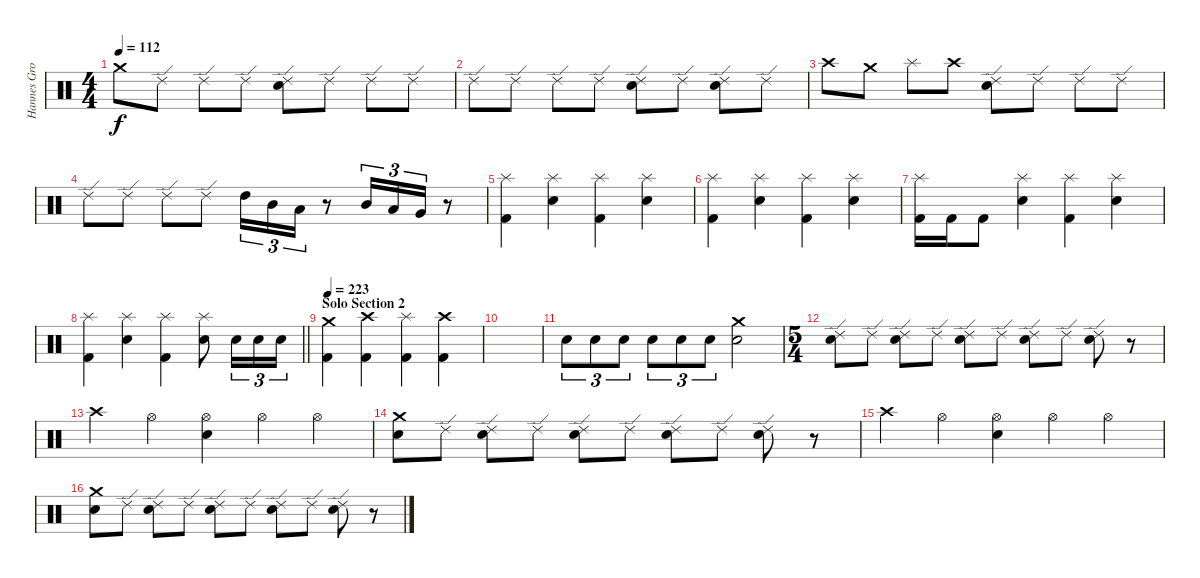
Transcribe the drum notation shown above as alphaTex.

\track ("Hannes Grossmann" "Hannes Gro") {instrument percussion}
\staff {score}
\articulation defaults
\ts (4 4)
\tempo 112
\clef neutral
\ks c "Crash medium (hit)".8{dy f} "Ride (edge) 2".8 "Ride (edge) 2".8 "Ride (edge) 2".8
("Ride (edge) 2" "Electric Snare (hit)").8 "Ride (edge) 2".8 "Ride (edge) 2".8 "Ride (edge) 2".8 |
"Ride (edge) 2".8 "Ride (edge) 2".8 "Ride (edge) 2".8 "Ride (edge) 2".8 ("Ride (edge) 2" "Electric Snare (hit)").8 "Ride (edge) 2".8 ("Ride (edge) 2" "Electric Snare (hit)").8 "Ride (edge) 2".8 |
"Crash high (hit)".8 "Crash medium (hit)".8 "Splash (hit)".8 "Crash high (hit)".8 ("Ride (edge) 2" "Electric Snare (hit)").8 "Ride (edge) 2".8 "Ride (edge) 2".8 "Ride (edge) 2".8 |
"Ride (edge) 2".8 "Ride (edge) 2".8 "Ride (edge) 2".8 "Ride (edge) 2".8 "High Tom (hit)".16{tu (3 2)} "Mid Tom (hit)".16{tu (3 2)} "Low Tom (hit)".16{tu (3 2)} r.8 "Mid Tom (hit)".16{tu (3 2)} "Low Tom (hit)".16{tu (3 2)} "Very Low Tom (hit)".16{tu (3 2)} r.8 |
("Splash (hit)" "Kick (hit) 2").4 ("Splash (hit)" "Electric Snare (hit)").4 ("Splash (hit)" "Kick (hit) 2").4 ("Splash (hit)" "Electric Snare (hit)").4 |
("Splash (hit)" "Kick (hit) 2").4 ("Splash (hit)" "Electric Snare (hit)").4 ("Splash (hit)" "Kick (hit) 2").4 ("Splash (hit)" "Electric Snare (hit)").4 |
("Splash (hit)" "Kick (hit) 2").16 "Kick (hit) 2".16 "Kick (hit) 2".8 ("Splash (hit)" "Electric Snare (hit)").4 ("Splash (hit)" "Kick (hit) 2").4 ("Splash (hit)" "Electric Snare (hit)").4 |
\barLineRight lightlight
("Splash (hit)" "Kick (hit) 2").4 ("Splash (hit)" "Electric Snare (hit)").4 ("Splash (hit)" "Kick (hit) 2").4 ("Splash (hit)" "Electric Snare (hit)").8 "Electric Snare (hit)".16{tu (3 2)} "Electric Snare (hit)".16{tu (3 2)} "Electric Snare (hit)".16{tu (3 2)} |
\section ("" "Solo Section 2")
\tempo 223
("Crash medium (hit)" "Kick (hit) 2").4 ("Crash high (hit)" "Kick (hit) 2").4 ("Splash (hit)" "Kick (hit) 2").4 ("Crash high (hit)" "Kick (hit) 2").4 |
|
"Electric Snare (hit)".8{tu (3 2)} "Electric Snare (hit)".8{tu (3 2)} "Electric Snare (hit)".8{tu (3 2)} "Electric Snare (hit)".8{tu (3 2)} "Electric Snare (hit)".8{tu (3 2)} "Electric Snare (hit)".8{tu (3 2)} ("Crash medium (hit)" "Electric Snare (hit)").2 |
\ts (5 4)
("Ride (edge) 2" "Electric Snare (hit)").8 "Ride (edge) 2".8 ("Ride (edge) 2" "Electric Snare (hit)").8 "Ride (edge) 2".8 ("Ride (edge) 2" "Electric Snare (hit)").8 "Ride (edge) 2".8 ("Ride (edge) 2" "Electric Snare (hit)").8 "Ride (edge) 2".8 ("Ride (edge) 2" "Electric Snare (hit)").8 r.8 |
"Crash high (hit)".4 "Hi-Hat (open)".4 ("Hi-Hat (open)" "Electric Snare (hit)").4 "Hi-Hat (open)".4 "Hi-Hat (open)".4 |
("Crash medium (hit)" "Electric Snare (hit)").8 "Ride (edge) 2".8 ("Ride (edge) 2" "Electric Snare (hit)").8 "Ride (edge) 2".8 ("Ride (edge) 2" "Electric Snare (hit)").8 "Ride (edge) 2".8 ("Ride (edge) 2" "Electric Snare (hit)").8 "Ride (edge) 2".8 ("Ride (edge) 2" "Electric Snare (hit)").8 r.8 |
"Crash high (hit)".4 "Hi-Hat (open)".4 ("Hi-Hat (open)" "Electric Snare (hit)").4 "Hi-Hat (open)".4 "Hi-Hat (open)".4 |
("Crash medium (hit)" "Electric Snare (hit)").8 "Ride (edge) 2".8 ("Ride (edge) 2" "Electric Snare (hit)").8 "Ride (edge) 2".8 ("Ride (edge) 2" "Electric Snare (hit)").8 "Ride (edge) 2".8 ("Ride (edge) 2" "Electric Snare (hit)").8 "Ride (edge) 2".8 ("Ride (edge) 2" "Electric Snare (hit)").8 r.8
